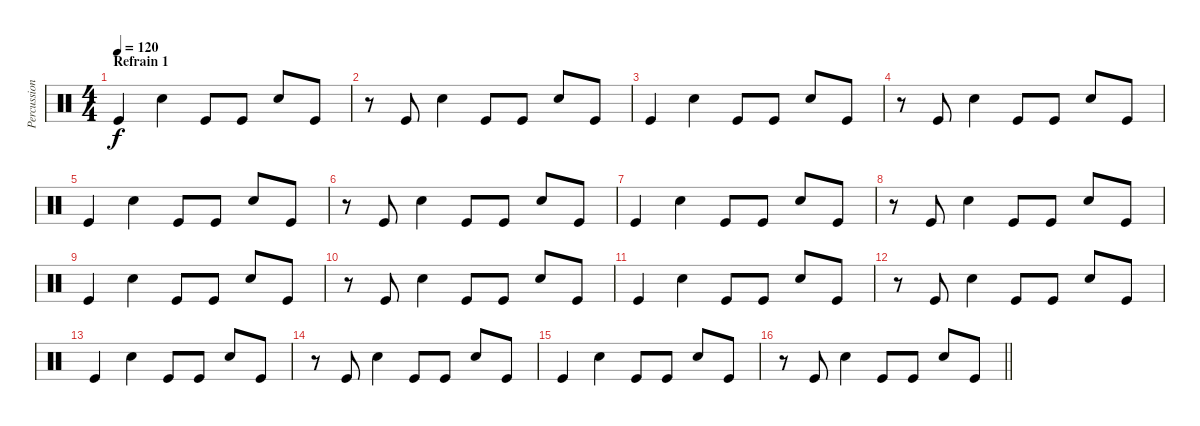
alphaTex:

\track ("Percussion" "Percussion") {instrument percussion}
\staff {score}
\articulation defaults
\ts (4 4)
\section ("" "Refrain 1")
\tempo 120
\clef neutral
\ks c "Kick (hit)".4{dy f} "Snare (hit) 2".4 "Kick (hit)".8 "Kick (hit)".8 "Snare (hit) 2".8 "Kick (hit)".8
|
r.8 "Kick (hit)".8 "Snare (hit) 2".4 "Kick (hit)".8 "Kick (hit)".8 "Snare (hit) 2".8 "Kick (hit)".8 |
"Kick (hit)".4 "Snare (hit) 2".4 "Kick (hit)".8 "Kick (hit)".8 "Snare (hit) 2".8 "Kick (hit)".8 |
r.8 "Kick (hit)".8 "Snare (hit) 2".4 "Kick (hit)".8 "Kick (hit)".8 "Snare (hit) 2".8 "Kick (hit)".8 |
"Kick (hit)".4 "Snare (hit) 2".4 "Kick (hit)".8 "Kick (hit)".8 "Snare (hit) 2".8 "Kick (hit)".8 |
r.8 "Kick (hit)".8 "Snare (hit) 2".4 "Kick (hit)".8 "Kick (hit)".8 "Snare (hit) 2".8 "Kick (hit)".8 |
"Kick (hit)".4 "Snare (hit) 2".4 "Kick (hit)".8 "Kick (hit)".8 "Snare (hit) 2".8 "Kick (hit)".8 |
r.8 "Kick (hit)".8 "Snare (hit) 2".4 "Kick (hit)".8 "Kick (hit)".8 "Snare (hit) 2".8 "Kick (hit)".8 |
"Kick (hit)".4 "Snare (hit) 2".4 "Kick (hit)".8 "Kick (hit)".8 "Snare (hit) 2".8 "Kick (hit)".8 |
r.8 "Kick (hit)".8 "Snare (hit) 2".4 "Kick (hit)".8 "Kick (hit)".8 "Snare (hit) 2".8 "Kick (hit)".8 |
"Kick (hit)".4 "Snare (hit) 2".4 "Kick (hit)".8 "Kick (hit)".8 "Snare (hit) 2".8 "Kick (hit)".8 |
r.8 "Kick (hit)".8 "Snare (hit) 2".4 "Kick (hit)".8 "Kick (hit)".8 "Snare (hit) 2".8 "Kick (hit)".8 |
"Kick (hit)".4 "Snare (hit) 2".4 "Kick (hit)".8 "Kick (hit)".8 "Snare (hit) 2".8 "Kick (hit)".8 |
r.8 "Kick (hit)".8 "Snare (hit) 2".4 "Kick (hit)".8 "Kick (hit)".8 "Snare (hit) 2".8 "Kick (hit)".8 |
"Kick (hit)".4 "Snare (hit) 2".4 "Kick (hit)".8 "Kick (hit)".8 "Snare (hit) 2".8 "Kick (hit)".8 |
\barLineRight lightlight
r.8 "Kick (hit)".8 "Snare (hit) 2".4 "Kick (hit)".8 "Kick (hit)".8 "Snare (hit) 2".8 "Kick (hit)".8
